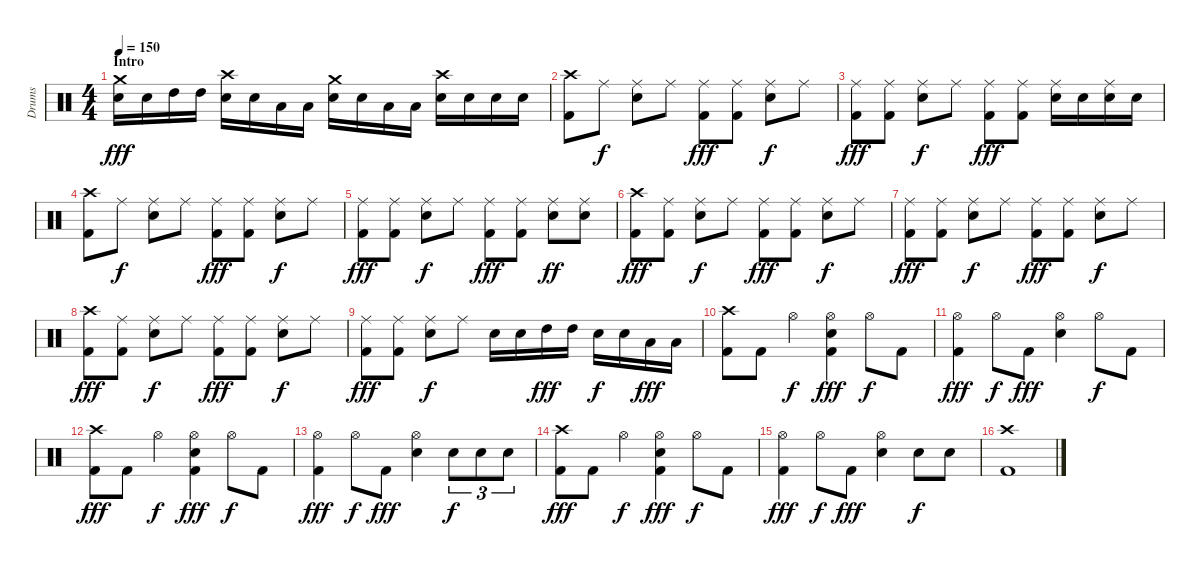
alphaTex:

\track ("Drums" "Drums") {instrument percussion}
\staff {score}
\articulation defaults
\ts (4 4)
\section ("" "Intro")
\tempo 150
\clef neutral
\ks c
("Crash medium (hit)" "Electric Snare (hit)").16{dy fff} "Electric Snare (hit)".16 "High Tom (hit)".16 "High Tom (hit)".16 ("Crash high (hit)" "Electric Snare (hit)").16 "Electric Snare (hit)".16 "Low Tom (hit)".16 "Low Tom (hit)".16 ("Crash medium (hit)" "Electric Snare (hit)").16 "Electric Snare (hit)".16 "Low Floor Tom (hit)".16 "Low Floor Tom (hit)".16 ("Crash high (hit)" "Electric Snare (hit)").16 "Electric Snare (hit)".16 "Electric Snare (hit)".16 "Electric Snare (hit)".16 |
("Crash high (hit)" "Kick (hit) 2").8 "Ride (middle)".8{dy f} ("Ride (middle)" "Snare (hit) 2").8 "Ride (middle)".8 ("Ride (middle)" "Kick (hit) 2").8{dy fff} ("Ride (middle)" "Kick (hit) 2").8 ("Ride (middle)" "Snare (hit) 2").8{dy f} "Ride (middle)".8 |
("Ride (middle)" "Kick (hit) 2").8{dy fff} ("Ride (middle)" "Kick (hit) 2").8 ("Ride (middle)" "Snare (hit) 2").8{dy f} "Ride (middle)".8 ("Ride (middle)" "Kick (hit) 2").8{dy fff} ("Ride (middle)" "Kick (hit) 2").8 ("Ride (middle)" "Electric Snare (hit)").16 "Electric Snare (hit)".16 ("Ride (middle)" "Electric Snare (hit)").16 "Electric Snare (hit)".16 |
("Crash high (hit)" "Kick (hit) 2").8 "Ride (middle)".8{dy f} ("Ride (middle)" "Snare (hit) 2").8 "Ride (middle)".8 ("Ride (middle)" "Kick (hit) 2").8{dy fff} ("Ride (middle)" "Kick (hit) 2").8 ("Ride (middle)" "Snare (hit) 2").8{dy f} "Ride (middle)".8 |
("Ride (middle)" "Kick (hit) 2").8{dy fff} ("Ride (middle)" "Kick (hit) 2").8 ("Ride (middle)" "Snare (hit) 2").8{dy f} "Ride (middle)".8 ("Ride (middle)" "Kick (hit) 2").8{dy fff} ("Ride (middle)" "Kick (hit) 2").8 ("Ride (middle)" "Electric Snare (hit)").8{dy ff} ("Ride (middle)" "Electric Snare (hit)").8 |
("Crash high (hit)" "Kick (hit) 2").8{dy fff} ("Ride (middle)" "Kick (hit) 2").8 ("Ride (middle)" "Snare (hit) 2").8{dy f} "Ride (middle)".8 ("Ride (middle)" "Kick (hit) 2").8{dy fff} ("Ride (middle)" "Kick (hit) 2").8 ("Ride (middle)" "Snare (hit) 2").8{dy f} "Ride (middle)".8 |
("Ride (middle)" "Kick (hit) 2").8{dy fff} ("Ride (middle)" "Kick (hit) 2").8 ("Ride (middle)" "Snare (hit) 2").8{dy f} "Ride (middle)".8 ("Ride (middle)" "Kick (hit) 2").8{dy fff} ("Ride (middle)" "Kick (hit) 2").8 ("Ride (middle)" "Snare (hit) 2").8{dy f} "Ride (middle)".8 |
("Crash high (hit)" "Kick (hit) 2").8{dy fff} ("Ride (middle)" "Kick (hit) 2").8 ("Ride (middle)" "Snare (hit) 2").8{dy f} "Ride (middle)".8 ("Ride (middle)" "Kick (hit) 2").8{dy fff} ("Ride (middle)" "Kick (hit) 2").8 ("Ride (middle)" "Snare (hit) 2").8{dy f} "Ride (middle)".8 |
("Ride (middle)" "Kick (hit) 2").8{dy fff} ("Ride (middle)" "Kick (hit) 2").8 ("Ride (middle)" "Snare (hit) 2").8{dy f} "Ride (middle)".8 "Electric Snare (hit)".16 "Electric Snare (hit)".16 "High Tom (hit)".16{dy fff} "High Tom (hit)".16 "Electric Snare (hit)".16{dy f} "Electric Snare (hit)".16 "Low Tom (hit)".16{dy fff} "Low Tom (hit)".16 |
("Crash high (hit)" "Kick (hit) 2").8 "Kick (hit) 2".8 "Hi-Hat (open)".4{dy f} ("Hi-Hat (open)" "Snare (hit) 2" "Kick (hit) 2").4{dy fff} "Hi-Hat (open)".8{dy f} "Kick (hit) 2".8 |
("Hi-Hat (open)" "Kick (hit) 2").4{dy fff} "Hi-Hat (open)".8{dy f} "Kick (hit) 2".8{dy fff} ("Hi-Hat (open)" "Snare (hit) 2").4 "Hi-Hat (open)".8{dy f} "Kick (hit) 2".8 |
("Crash high (hit)" "Kick (hit) 2").8{dy fff} "Kick (hit) 2".8 "Hi-Hat (open)".4{dy f} ("Hi-Hat (open)" "Snare (hit) 2" "Kick (hit) 2").4{dy fff} "Hi-Hat (open)".8{dy f} "Kick (hit) 2".8 |
("Hi-Hat (open)" "Kick (hit) 2").4{dy fff} "Hi-Hat (open)".8{dy f} "Kick (hit) 2".8{dy fff} ("Hi-Hat (open)" "Snare (hit) 2").4 "Electric Snare (hit)".8{tu (3 2) dy f} "Electric Snare (hit)".8{tu (3 2)} "Electric Snare (hit)".8{tu (3 2)} |
("Crash high (hit)" "Kick (hit) 2").8{dy fff} "Kick (hit) 2".8 "Hi-Hat (open)".4{dy f} ("Hi-Hat (open)" "Snare (hit) 2" "Kick (hit) 2").4{dy fff} "Hi-Hat (open)".8{dy f} "Kick (hit) 2".8 |
("Hi-Hat (open)" "Kick (hit) 2").4{dy fff} "Hi-Hat (open)".8{dy f} "Kick (hit) 2".8{dy fff} ("Hi-Hat (open)" "Snare (hit) 2").4 "Electric Snare (hit)".8{dy f} "Electric Snare (hit)".8 |
("Crash high (hit)" "Kick (hit) 2").1
